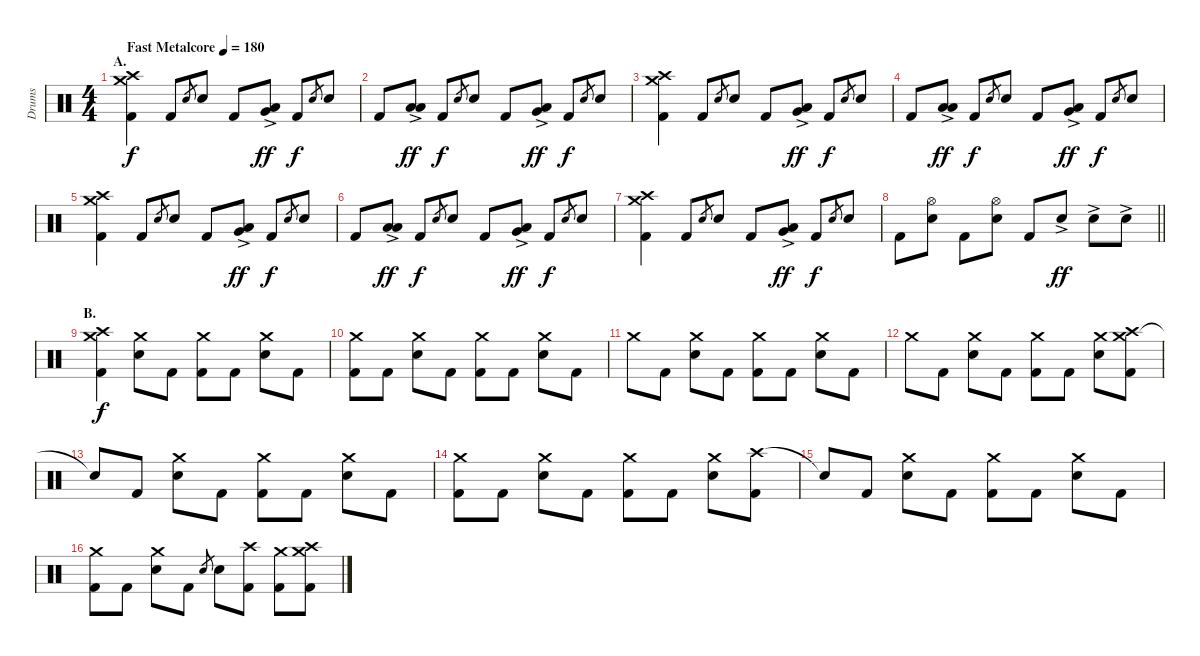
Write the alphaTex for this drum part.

\track ("Drums" "Drums") {instrument percussion}
\staff {score}
\articulation defaults
\ts (4 4)
\section ("" "A.")
\tempo (180 "Fast Metalcore")
\clef neutral
\ks c
("Crash medium (hit)" "Crash high (hit)" "Kick (hit) 2").4{dy f} "Kick (hit) 2".8 "Electric Snare (hit)".8{gr} "Electric Snare (hit)".8 "Kick (hit) 2".8 ("Very Low Tom (hit)" "Low Floor Tom (hit)"{ac}).8{bu 120 dy ff} "Kick (hit) 2".8{dy f} "Electric Snare (hit)".8{gr} "Electric Snare (hit)".8 |
"Kick (hit) 2".8 ("Low Tom (hit)" "Low Floor Tom (hit)"{ac}).8{bu 120 dy ff} "Kick (hit) 2".8{dy f} "Electric Snare (hit)".8{gr} "Electric Snare (hit)".8 "Kick (hit) 2".8 ("Very Low Tom (hit)" "Low Floor Tom (hit)"{ac}).8{bu 120 dy ff} "Kick (hit) 2".8{dy f} "Electric Snare (hit)".8{gr} "Electric Snare (hit)".8 |
("Crash medium (hit)" "Crash high (hit)" "Kick (hit) 2").4 "Kick (hit) 2".8 "Electric Snare (hit)".8{gr} "Electric Snare (hit)".8 "Kick (hit) 2".8 ("Very Low Tom (hit)" "Low Floor Tom (hit)"{ac}).8{bu 120 dy ff} "Kick (hit) 2".8{dy f} "Electric Snare (hit)".8{gr} "Electric Snare (hit)".8 |
"Kick (hit) 2".8 ("Low Tom (hit)" "Low Floor Tom (hit)"{ac}).8{bu 120 dy ff} "Kick (hit) 2".8{dy f} "Electric Snare (hit)".8{gr} "Electric Snare (hit)".8 "Kick (hit) 2".8 ("Very Low Tom (hit)" "Low Floor Tom (hit)"{ac}).8{bu 120 dy ff} "Kick (hit) 2".8{dy f} "Electric Snare (hit)".8{gr} "Electric Snare (hit)".8 |
("Crash medium (hit)" "Crash high (hit)" "Kick (hit) 2").4 "Kick (hit) 2".8 "Electric Snare (hit)".8{gr} "Electric Snare (hit)".8 "Kick (hit) 2".8 ("Very Low Tom (hit)" "Low Floor Tom (hit)"{ac}).8{bu 120 dy ff} "Kick (hit) 2".8{dy f} "Electric Snare (hit)".8{gr} "Electric Snare (hit)".8 |
"Kick (hit) 2".8 ("Low Tom (hit)" "Low Floor Tom (hit)"{ac}).8{bu 120 dy ff} "Kick (hit) 2".8{dy f} "Electric Snare (hit)".8{gr} "Electric Snare (hit)".8 "Kick (hit) 2".8 ("Very Low Tom (hit)" "Low Floor Tom (hit)"{ac}).8{bu 120 dy ff} "Kick (hit) 2".8{dy f} "Electric Snare (hit)".8{gr} "Electric Snare (hit)".8 |
("Crash medium (hit)" "Crash high (hit)" "Kick (hit) 2").4 "Kick (hit) 2".8 "Electric Snare (hit)".8{gr} "Electric Snare (hit)".8 "Kick (hit) 2".8 ("Very Low Tom (hit)" "Low Floor Tom (hit)"{ac}).8{bu 120 dy ff} "Kick (hit) 2".8{dy f} "Electric Snare (hit)".8{gr} "Electric Snare (hit)".8 |
\barLineRight lightlight "Kick (hit) 2".8
("Hi-Hat (open)" "Electric Snare (hit)").8 "Kick (hit) 2".8 ("Hi-Hat (open)" "Electric Snare (hit)").8 "Kick (hit) 2".8 "Electric Snare (hit)"{ac}.8{dy ff} "Electric Snare (hit)"{ac}.8 "Electric Snare (hit)"{ac}.8 |
\section ("" "B.")
("Crash medium (hit)" "Crash high (hit)" "Kick (hit) 2").4{dy f} ("Crash medium (hit)" "Electric Snare (hit)").8 "Kick (hit) 2".8 ("Crash medium (hit)" "Kick (hit) 2").8 "Kick (hit) 2".8 ("Crash medium (hit)" "Electric Snare (hit)").8 "Kick (hit) 2".8 |
("Crash medium (hit)" "Kick (hit) 2").8 "Kick (hit) 2".8 ("Crash medium (hit)" "Electric Snare (hit)").8 "Kick (hit) 2".8 ("Crash medium (hit)" "Kick (hit) 2").8 "Kick (hit) 2".8 ("Crash medium (hit)" "Electric Snare (hit)").8 "Kick (hit) 2".8 |
"Crash medium (hit)".8 "Kick (hit) 2".8 ("Crash medium (hit)" "Electric Snare (hit)").8 "Kick (hit) 2".8 ("Crash medium (hit)" "Kick (hit) 2").8 "Kick (hit) 2".8 ("Crash medium (hit)" "Electric Snare (hit)").8 "Kick (hit) 2".8 |
"Crash medium (hit)".8 "Kick (hit) 2".8 ("Crash medium (hit)" "Electric Snare (hit)").8 "Kick (hit) 2".8 ("Crash medium (hit)" "Kick (hit) 2").8 "Kick (hit) 2".8 ("Crash medium (hit)" "Electric Snare (hit)").8 ("Crash medium (hit)" "Crash high (hit)" "Kick (hit) 2").8 |
"Snare (hit)"{t}.8 "Kick (hit) 2".8 ("Crash medium (hit)" "Electric Snare (hit)").8 "Kick (hit) 2".8 ("Crash medium (hit)" "Kick (hit) 2").8 "Kick (hit) 2".8 ("Crash medium (hit)" "Electric Snare (hit)").8 "Kick (hit) 2".8 |
("Crash medium (hit)" "Kick (hit) 2").8 "Kick (hit) 2".8 ("Crash medium (hit)" "Electric Snare (hit)").8 "Kick (hit) 2".8 ("Crash medium (hit)" "Kick (hit) 2").8 "Kick (hit) 2".8 ("Crash medium (hit)" "Electric Snare (hit)").8 ("Crash high (hit)" "Kick (hit) 2").8 |
"Snare (hit)"{t}.8 "Kick (hit) 2".8 ("Crash medium (hit)" "Electric Snare (hit)").8 "Kick (hit) 2".8 ("Crash medium (hit)" "Kick (hit) 2").8 "Kick (hit) 2".8 ("Crash medium (hit)" "Electric Snare (hit)").8 "Kick (hit) 2".8 |
("Crash medium (hit)" "Kick (hit) 2").8 "Kick (hit) 2".8 ("Crash medium (hit)" "Electric Snare (hit)").8 "Kick (hit) 2".8 "Electric Snare (hit)".8{gr} "Electric Snare (hit)".8 ("Crash high (hit)" "Kick (hit) 2").8 ("Crash medium (hit)" "Kick (hit) 2").8 ("Crash medium (hit)" "Crash high (hit)" "Kick (hit) 2").8
